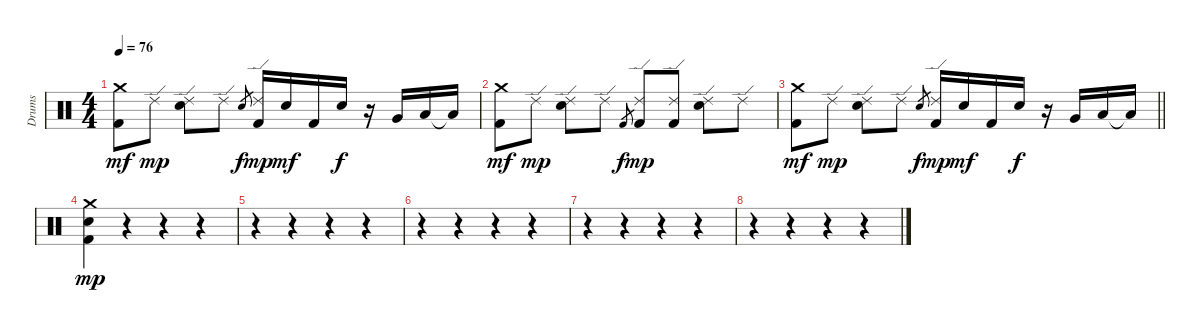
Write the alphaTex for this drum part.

\track ("Drums" "Drums") {instrument percussion}
\staff {score}
\articulation defaults
\ts (4 4)
\tempo 76
\clef neutral
\ks c
("Crash medium (hit)" "Kick (hit) 2").8{dy mf} "Ride (edge) 2".8{dy mp} ("Ride (edge) 2" "Snare (hit) 2").8 "Ride (edge) 2".8 "Snare (hit) 2".8{gr dy f} ("Ride (edge) 2" "Kick (hit) 2").16{dy mp} "Snare (hit) 2".16{dy mf} "Kick (hit) 2".16 "Snare (hit) 2".16{dy f} r.16 "Very Low Tom (hit)".16 "Low Floor Tom (hit)".16 "Low Floor Tom (hit)"{t}.16 |
("Crash medium (hit)" "Kick (hit) 2").8{dy mf} "Ride (edge) 2".8{dy mp} ("Ride (edge) 2" "Snare (hit) 2").8 "Ride (edge) 2".8 "Kick (hit) 2".8{gr dy f} ("Ride (edge) 2" "Kick (hit) 2").8{dy mp} ("Ride (edge) 2" "Kick (hit) 2").8 ("Ride (edge) 2" "Snare (hit) 2").8 "Ride (edge) 2".8 |
\barLineRight lightlight
("Crash medium (hit)" "Kick (hit) 2").8{dy mf} "Ride (edge) 2".8{dy mp} ("Ride (edge) 2" "Snare (hit) 2").8 "Ride (edge) 2".8 "Snare (hit) 2".8{gr dy f} ("Ride (edge) 2" "Kick (hit) 2").16{dy mp} "Snare (hit) 2".16{dy mf} "Kick (hit) 2".16 "Snare (hit) 2".16{dy f} r.16 "Very Low Tom (hit)".16 "Low Floor Tom (hit)".16 "Low Floor Tom (hit)"{t}.16 |
("Crash medium (hit)" "Snare (hit) 2" "Kick (hit) 2").4{dy mp} r.4 r.4 r.4 |
r.4 r.4 r.4 r.4 |
r.4 r.4 r.4 r.4 |
r.4 r.4 r.4 r.4 |
r.4 r.4 r.4 r.4
